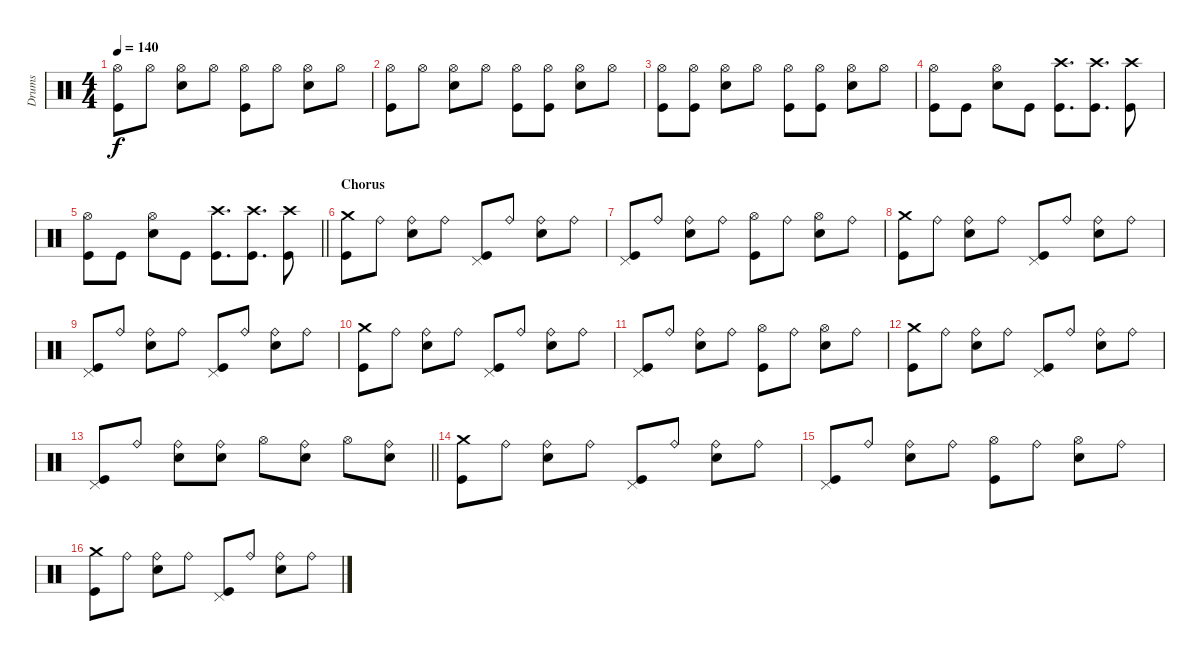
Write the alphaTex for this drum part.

\track ("Drums" "Drums") {instrument percussion}
\staff {score}
\articulation defaults
\ts (4 4)
\tempo 140
\clef neutral
\ks c
("Hi-Hat (open)" "Kick (hit)").8{dy f} "Hi-Hat (open)".8 ("Hi-Hat (open)" "Snare (hit) 2").8 "Hi-Hat (open)".8 ("Hi-Hat (open)" "Kick (hit)").8 "Hi-Hat (open)".8 ("Hi-Hat (open)" "Snare (hit) 2").8 "Hi-Hat (open)".8 |
("Hi-Hat (open)" "Kick (hit)").8 "Hi-Hat (open)".8 ("Hi-Hat (open)" "Snare (hit) 2").8 "Hi-Hat (open)".8 ("Hi-Hat (open)" "Kick (hit)").8 ("Hi-Hat (open)" "Kick (hit)").8 ("Hi-Hat (open)" "Snare (hit) 2").8 "Hi-Hat (open)".8 |
("Hi-Hat (open)" "Kick (hit)").8 ("Hi-Hat (open)" "Kick (hit)").8 ("Hi-Hat (open)" "Snare (hit) 2").8 "Hi-Hat (open)".8 ("Hi-Hat (open)" "Kick (hit)").8 ("Hi-Hat (open)" "Kick (hit)").8 ("Hi-Hat (open)" "Snare (hit) 2").8 "Hi-Hat (open)".8 |
("Hi-Hat (open)" "Kick (hit)").8 "Kick (hit)".8 ("Hi-Hat (open)" "Snare (hit) 2").8 "Kick (hit)".8 ("Crash high (hit)" "Kick (hit)").8{d} ("Crash high (hit)" "Kick (hit)").8{d} ("Crash high (hit)" "Kick (hit)").8 |
\barLineRight lightlight
("Hi-Hat (open)" "Kick (hit)").8 "Kick (hit)".8 ("Hi-Hat (open)" "Snare (hit) 2").8 "Kick (hit)".8 ("Crash high (hit)" "Kick (hit)").8{d} ("Crash high (hit)" "Kick (hit)").8{d} ("Crash high (hit)" "Kick (hit)").8 |
\section ("" "Chorus")
("Crash medium (hit)" "Kick (hit)").8 "Ride (bell)".8 ("Ride (bell)" "Snare (hit) 2").8 "Ride (bell)".8 ("Pedal Hi-Hat (hit)" "Kick (hit)").8 "Ride (bell)".8 ("Ride (bell)" "Snare (hit) 2").8 "Ride (bell)".8 |
("Pedal Hi-Hat (hit)" "Kick (hit)").8 "Ride (bell)".8 ("Ride (bell)" "Snare (hit) 2").8 "Ride (bell)".8 ("Hi-Hat (open)" "Kick (hit)").8 "Ride (bell)".8 ("Hi-Hat (open)" "Snare (hit) 2").8 "Ride (bell)".8 |
("Crash medium (hit)" "Kick (hit)").8 "Ride (bell)".8 ("Ride (bell)" "Snare (hit) 2").8 "Ride (bell)".8 ("Pedal Hi-Hat (hit)" "Kick (hit)").8 "Ride (bell)".8 ("Ride (bell)" "Snare (hit) 2").8 "Ride (bell)".8 |
("Pedal Hi-Hat (hit)" "Kick (hit)").8 "Ride (bell)".8 ("Ride (bell)" "Snare (hit) 2").8 "Ride (bell)".8 ("Pedal Hi-Hat (hit)" "Kick (hit)").8 "Ride (bell)".8 ("Ride (bell)" "Snare (hit) 2").8 "Ride (bell)".8 |
("Crash medium (hit)" "Kick (hit)").8 "Ride (bell)".8 ("Ride (bell)" "Snare (hit) 2").8 "Ride (bell)".8 ("Pedal Hi-Hat (hit)" "Kick (hit)").8 "Ride (bell)".8 ("Ride (bell)" "Snare (hit) 2").8 "Ride (bell)".8 |
("Pedal Hi-Hat (hit)" "Kick (hit)").8 "Ride (bell)".8 ("Ride (bell)" "Snare (hit) 2").8 "Ride (bell)".8 ("Hi-Hat (open)" "Kick (hit)").8 "Ride (bell)".8 ("Hi-Hat (open)" "Snare (hit) 2").8 "Ride (bell)".8 |
("Crash medium (hit)" "Kick (hit)").8 "Ride (bell)".8 ("Ride (bell)" "Snare (hit) 2").8 "Ride (bell)".8 ("Pedal Hi-Hat (hit)" "Kick (hit)").8 "Ride (bell)".8 ("Ride (bell)" "Snare (hit) 2").8 "Ride (bell)".8 |
\barLineRight lightlight
("Pedal Hi-Hat (hit)" "Kick (hit)").8 "Ride (bell)".8 ("Ride (bell)" "Snare (hit) 2").8 ("Ride (bell)" "Snare (hit) 2").8 "Hi-Hat (open)".8 ("Ride (bell)" "Snare (hit) 2").8 "Hi-Hat (open)".8 ("Ride (bell)" "Snare (hit) 2").8 |
("Crash medium (hit)" "Kick (hit)").8 "Ride (bell)".8 ("Ride (bell)" "Snare (hit) 2").8 "Ride (bell)".8 ("Pedal Hi-Hat (hit)" "Kick (hit)").8 "Ride (bell)".8 ("Ride (bell)" "Snare (hit) 2").8 "Ride (bell)".8 |
("Pedal Hi-Hat (hit)" "Kick (hit)").8 "Ride (bell)".8 ("Ride (bell)" "Snare (hit) 2").8 "Ride (bell)".8 ("Hi-Hat (open)" "Kick (hit)").8 "Ride (bell)".8 ("Hi-Hat (open)" "Snare (hit) 2").8 "Ride (bell)".8 |
("Crash medium (hit)" "Kick (hit)").8 "Ride (bell)".8 ("Ride (bell)" "Snare (hit) 2").8 "Ride (bell)".8 ("Pedal Hi-Hat (hit)" "Kick (hit)").8 "Ride (bell)".8 ("Ride (bell)" "Snare (hit) 2").8 "Ride (bell)".8
